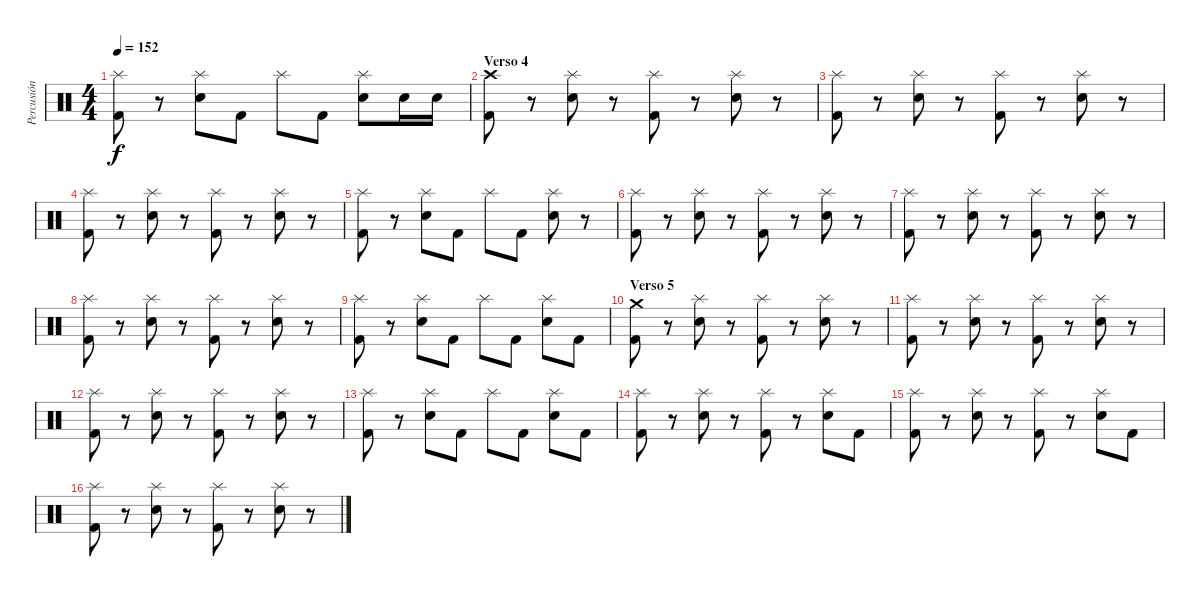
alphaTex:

\track ("Percusión" "Percusión") {instrument percussion}
\staff {score}
\articulation defaults
\ts (4 4)
\tempo 152
\clef neutral
\ks c
("Splash (hit)" "Kick (hit) 2").8{dy f} r.8 ("Splash (hit)" "Snare (hit) 2").8 "Kick (hit) 2".8 "Splash (hit)".8 "Kick (hit) 2".8 ("Splash (hit)" "Snare (hit) 2").8 "Snare (hit) 2".16 "Snare (hit) 2".16 |
\section ("" "Verso 4")
("Crash high (hit)" "Kick (hit) 2").8 r.8 ("Splash (hit)" "Snare (hit) 2").8 r.8 ("Splash (hit)" "Kick (hit) 2").8 r.8 ("Splash (hit)" "Snare (hit) 2").8 r.8 |
("Splash (hit)" "Kick (hit) 2").8 r.8 ("Splash (hit)" "Snare (hit) 2").8 r.8 ("Splash (hit)" "Kick (hit) 2").8 r.8 ("Splash (hit)" "Snare (hit) 2").8 r.8 |
("Splash (hit)" "Kick (hit) 2").8 r.8 ("Splash (hit)" "Snare (hit) 2").8 r.8 ("Splash (hit)" "Kick (hit) 2").8 r.8 ("Splash (hit)" "Snare (hit) 2").8 r.8 |
("Splash (hit)" "Kick (hit) 2").8 r.8 ("Splash (hit)" "Snare (hit) 2").8 "Kick (hit) 2".8 "Splash (hit)".8 "Kick (hit) 2".8 ("Splash (hit)" "Snare (hit) 2").8 r.8 |
("Splash (hit)" "Kick (hit) 2").8 r.8 ("Splash (hit)" "Snare (hit) 2").8 r.8 ("Splash (hit)" "Kick (hit) 2").8 r.8 ("Splash (hit)" "Snare (hit) 2").8 r.8 |
("Splash (hit)" "Kick (hit) 2").8 r.8 ("Splash (hit)" "Snare (hit) 2").8 r.8 ("Splash (hit)" "Kick (hit) 2").8 r.8 ("Splash (hit)" "Snare (hit) 2").8 r.8 |
("Splash (hit)" "Kick (hit) 2").8 r.8 ("Splash (hit)" "Snare (hit) 2").8 r.8 ("Splash (hit)" "Kick (hit) 2").8 r.8 ("Splash (hit)" "Snare (hit) 2").8 r.8 |
("Splash (hit)" "Kick (hit) 2").8 r.8 ("Splash (hit)" "Snare (hit) 2").8 "Kick (hit) 2".8 "Splash (hit)".8 "Kick (hit) 2".8 ("Splash (hit)" "Snare (hit) 2").8 "Kick (hit) 2".8 |
\section ("" "Verso 5")
("Crash medium (hit)" "Kick (hit) 2").8 r.8 ("Splash (hit)" "Snare (hit) 2").8 r.8 ("Splash (hit)" "Kick (hit) 2").8 r.8 ("Splash (hit)" "Snare (hit) 2").8 r.8 |
("Splash (hit)" "Kick (hit) 2").8 r.8 ("Splash (hit)" "Snare (hit) 2").8 r.8 ("Splash (hit)" "Kick (hit) 2").8 r.8 ("Splash (hit)" "Snare (hit) 2").8 r.8 |
("Splash (hit)" "Kick (hit) 2").8 r.8 ("Splash (hit)" "Snare (hit) 2").8 r.8 ("Splash (hit)" "Kick (hit) 2").8 r.8 ("Splash (hit)" "Snare (hit) 2").8 r.8 |
("Splash (hit)" "Kick (hit) 2").8 r.8 ("Splash (hit)" "Snare (hit) 2").8 "Kick (hit) 2".8 "Splash (hit)".8 "Kick (hit) 2".8 ("Splash (hit)" "Snare (hit) 2").8 "Kick (hit) 2".8 |
("Splash (hit)" "Kick (hit) 2").8 r.8 ("Splash (hit)" "Snare (hit) 2").8 r.8 ("Splash (hit)" "Kick (hit) 2").8 r.8 ("Splash (hit)" "Snare (hit) 2").8 "Kick (hit) 2".8 |
("Splash (hit)" "Kick (hit) 2").8 r.8 ("Splash (hit)" "Snare (hit) 2").8 r.8 ("Splash (hit)" "Kick (hit) 2").8 r.8 ("Splash (hit)" "Snare (hit) 2").8 "Kick (hit) 2".8 |
("Splash (hit)" "Kick (hit) 2").8 r.8 ("Splash (hit)" "Snare (hit) 2").8 r.8 ("Splash (hit)" "Kick (hit) 2").8 r.8 ("Splash (hit)" "Snare (hit) 2").8 r.8
